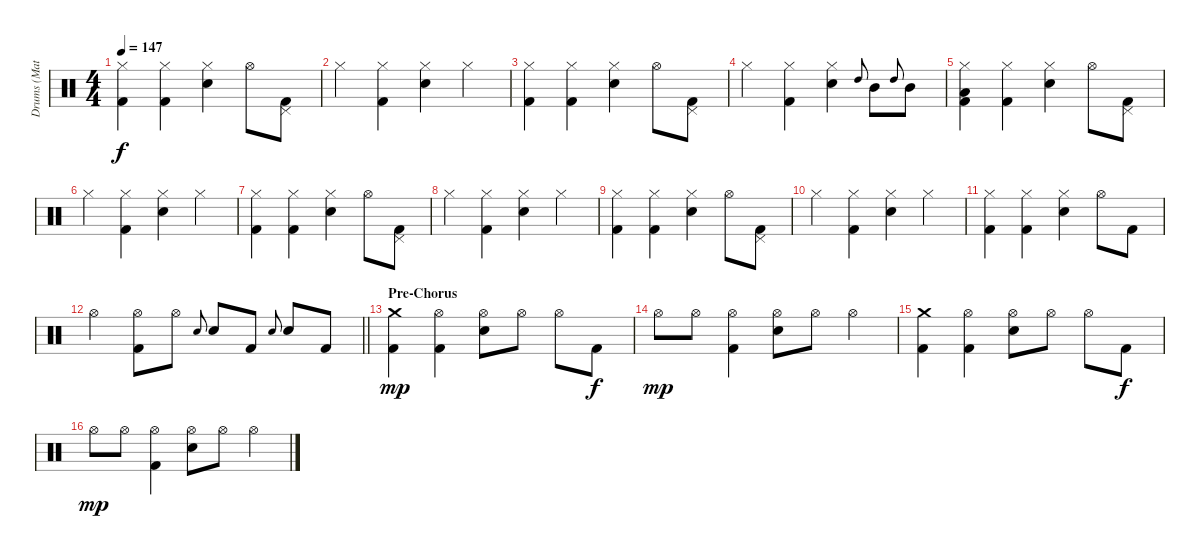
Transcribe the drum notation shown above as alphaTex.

\track ("Drums (Matt Laug)" "Drums (Mat") {instrument percussion}
\staff {score}
\articulation defaults
\ts (4 4)
\tempo 147
\clef neutral
\ks c
("Hi-Hat (closed)" "Kick (hit) 2").4{dy f} ("Hi-Hat (closed)" "Kick (hit) 2").4 ("Hi-Hat (closed)" "Electric Snare (hit)").4 "Hi-Hat (open)".8 ("Pedal Hi-Hat (hit)" "Kick (hit) 2").8 |
"Hi-Hat (closed)".4 ("Hi-Hat (closed)" "Kick (hit) 2").4 ("Hi-Hat (closed)" "Electric Snare (hit)").4 "Hi-Hat (closed)".4 |
("Hi-Hat (closed)" "Kick (hit) 2").4 ("Hi-Hat (closed)" "Kick (hit) 2").4 ("Hi-Hat (closed)" "Electric Snare (hit)").4 "Hi-Hat (open)".8 ("Pedal Hi-Hat (hit)" "Kick (hit) 2").8 |
"Hi-Hat (closed)".4 ("Hi-Hat (closed)" "Kick (hit) 2").4 ("Hi-Hat (closed)" "Electric Snare (hit)").4 "High Tom (hit)".8{gr onbeat} "Mid Tom (hit)".8 "High Tom (hit)".8{gr onbeat} "Mid Tom (hit)".8 |
("Hi-Hat (closed)" "Low Floor Tom (hit)" "Kick (hit) 2").4 ("Hi-Hat (closed)" "Kick (hit) 2").4 ("Hi-Hat (closed)" "Electric Snare (hit)").4 "Hi-Hat (open)".8 ("Pedal Hi-Hat (hit)" "Kick (hit) 2").8 |
"Hi-Hat (closed)".4 ("Hi-Hat (closed)" "Kick (hit) 2").4 ("Hi-Hat (closed)" "Electric Snare (hit)").4 "Hi-Hat (closed)".4 |
("Hi-Hat (closed)" "Kick (hit) 2").4 ("Hi-Hat (closed)" "Kick (hit) 2").4 ("Hi-Hat (closed)" "Electric Snare (hit)").4 "Hi-Hat (open)".8 ("Pedal Hi-Hat (hit)" "Kick (hit) 2").8 |
"Hi-Hat (closed)".4 ("Hi-Hat (closed)" "Kick (hit) 2").4 ("Hi-Hat (closed)" "Electric Snare (hit)").4 "Hi-Hat (closed)".4 |
("Hi-Hat (closed)" "Kick (hit) 2").4 ("Hi-Hat (closed)" "Kick (hit) 2").4 ("Hi-Hat (closed)" "Electric Snare (hit)").4 "Hi-Hat (open)".8 ("Pedal Hi-Hat (hit)" "Kick (hit) 2").8 |
"Hi-Hat (closed)".4 ("Hi-Hat (closed)" "Kick (hit) 2").4 ("Hi-Hat (closed)" "Electric Snare (hit)").4 "Hi-Hat (closed)".4 |
("Hi-Hat (closed)" "Kick (hit) 2").4 ("Hi-Hat (closed)" "Kick (hit) 2").4 ("Hi-Hat (closed)" "Electric Snare (hit)").4 "Hi-Hat (open)".8 "Kick (hit) 2".8 |
\barLineRight lightlight "Hi-Hat (open)".4
("Hi-Hat (open)" "Kick (hit) 2").8 "Hi-Hat (open)".8 "Electric Snare (hit)".8{gr onbeat} "Electric Snare (hit)".8 "Kick (hit) 2".8 "Electric Snare (hit)".8{gr onbeat} "Electric Snare (hit)".8 "Kick (hit) 2".8 |
\section ("" "Pre-Chorus")
("Crash medium (hit)" "Kick (hit) 2").4{dy mp} ("Hi-Hat (open)" "Kick (hit) 2").4 ("Hi-Hat (open)" "Electric Snare (hit)").8 "Hi-Hat (open)".8 "Hi-Hat (open)".8 "Kick (hit) 2".8{dy f} |
"Hi-Hat (open)".8{dy mp} "Hi-Hat (open)".8 ("Hi-Hat (open)" "Kick (hit) 2").4 ("Hi-Hat (open)" "Electric Snare (hit)").8 "Hi-Hat (open)".8 "Hi-Hat (open)".4 |
("Crash medium (hit)" "Kick (hit) 2").4 ("Hi-Hat (open)" "Kick (hit) 2").4 ("Hi-Hat (open)" "Electric Snare (hit)").8 "Hi-Hat (open)".8 "Hi-Hat (open)".8 "Kick (hit) 2".8{dy f} |
"Hi-Hat (open)".8{dy mp} "Hi-Hat (open)".8 ("Hi-Hat (open)" "Kick (hit) 2").4 ("Hi-Hat (open)" "Electric Snare (hit)").8 "Hi-Hat (open)".8 "Hi-Hat (open)".4
